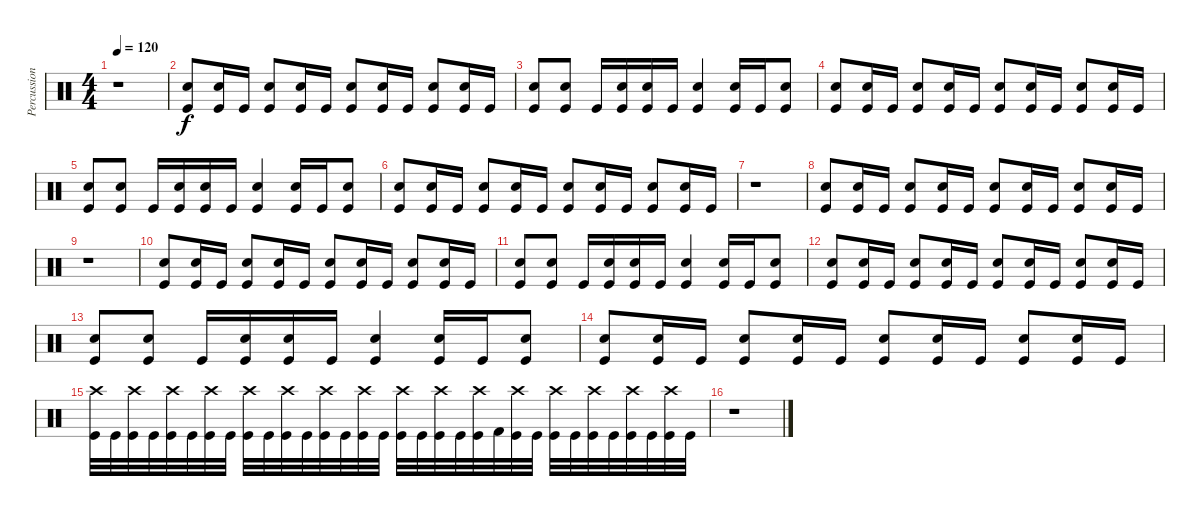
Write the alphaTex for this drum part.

\track ("Percussion" "Percussion") {instrument percussion}
\staff {score}
\articulation defaults
\ts (4 4)
\tempo 120
\clef neutral
\ks c
r.1{dy f} |
("Kick (hit)" "Snare (hit) 2").8 ("Kick (hit)" "Snare (hit) 2").16 "Kick (hit)".16 ("Kick (hit)" "Snare (hit) 2").8 ("Kick (hit)" "Snare (hit) 2").16 "Kick (hit)".16 ("Kick (hit)" "Snare (hit) 2").8 ("Kick (hit)" "Snare (hit) 2").16 "Kick (hit)".16 ("Kick (hit)" "Snare (hit) 2").8 ("Kick (hit)" "Snare (hit) 2").16 "Kick (hit)".16 |
("Kick (hit)" "Snare (hit) 2").8 ("Kick (hit)" "Snare (hit) 2").8 "Kick (hit)".16 ("Kick (hit)" "Snare (hit) 2").16 ("Kick (hit)" "Snare (hit) 2").16 "Kick (hit)".16 ("Kick (hit)" "Snare (hit) 2").4 ("Kick (hit)" "Snare (hit) 2").16 "Kick (hit)".16 ("Kick (hit)" "Snare (hit) 2").8 |
("Kick (hit)" "Snare (hit) 2").8 ("Kick (hit)" "Snare (hit) 2").16 "Kick (hit)".16 ("Kick (hit)" "Snare (hit) 2").8 ("Kick (hit)" "Snare (hit) 2").16 "Kick (hit)".16 ("Kick (hit)" "Snare (hit) 2").8 ("Kick (hit)" "Snare (hit) 2").16 "Kick (hit)".16 ("Kick (hit)" "Snare (hit) 2").8 ("Kick (hit)" "Snare (hit) 2").16 "Kick (hit)".16 |
("Kick (hit)" "Snare (hit) 2").8 ("Kick (hit)" "Snare (hit) 2").8 "Kick (hit)".16 ("Kick (hit)" "Snare (hit) 2").16 ("Kick (hit)" "Snare (hit) 2").16 "Kick (hit)".16 ("Kick (hit)" "Snare (hit) 2").4 ("Kick (hit)" "Snare (hit) 2").16 "Kick (hit)".16 ("Kick (hit)" "Snare (hit) 2").8 |
("Kick (hit)" "Snare (hit) 2").8 ("Kick (hit)" "Snare (hit) 2").16 "Kick (hit)".16 ("Kick (hit)" "Snare (hit) 2").8 ("Kick (hit)" "Snare (hit) 2").16 "Kick (hit)".16 ("Kick (hit)" "Snare (hit) 2").8 ("Kick (hit)" "Snare (hit) 2").16 "Kick (hit)".16 ("Kick (hit)" "Snare (hit) 2").8 ("Kick (hit)" "Snare (hit) 2").16 "Kick (hit)".16 |
r.1 |
("Kick (hit)" "Snare (hit) 2").8 ("Kick (hit)" "Snare (hit) 2").16 "Kick (hit)".16 ("Kick (hit)" "Snare (hit) 2").8 ("Kick (hit)" "Snare (hit) 2").16 "Kick (hit)".16 ("Kick (hit)" "Snare (hit) 2").8 ("Kick (hit)" "Snare (hit) 2").16 "Kick (hit)".16 ("Kick (hit)" "Snare (hit) 2").8 ("Kick (hit)" "Snare (hit) 2").16 "Kick (hit)".16 |
r.1 |
("Kick (hit)" "Snare (hit) 2").8 ("Kick (hit)" "Snare (hit) 2").16 "Kick (hit)".16 ("Kick (hit)" "Snare (hit) 2").8 ("Kick (hit)" "Snare (hit) 2").16 "Kick (hit)".16 ("Kick (hit)" "Snare (hit) 2").8 ("Kick (hit)" "Snare (hit) 2").16 "Kick (hit)".16 ("Kick (hit)" "Snare (hit) 2").8 ("Kick (hit)" "Snare (hit) 2").16 "Kick (hit)".16 |
("Kick (hit)" "Snare (hit) 2").8 ("Kick (hit)" "Snare (hit) 2").8 "Kick (hit)".16 ("Kick (hit)" "Snare (hit) 2").16 ("Kick (hit)" "Snare (hit) 2").16 "Kick (hit)".16 ("Kick (hit)" "Snare (hit) 2").4 ("Kick (hit)" "Snare (hit) 2").16 "Kick (hit)".16 ("Kick (hit)" "Snare (hit) 2").8 |
("Kick (hit)" "Snare (hit) 2").8 ("Kick (hit)" "Snare (hit) 2").16 "Kick (hit)".16 ("Kick (hit)" "Snare (hit) 2").8 ("Kick (hit)" "Snare (hit) 2").16 "Kick (hit)".16 ("Kick (hit)" "Snare (hit) 2").8 ("Kick (hit)" "Snare (hit) 2").16 "Kick (hit)".16 ("Kick (hit)" "Snare (hit) 2").8 ("Kick (hit)" "Snare (hit) 2").16 "Kick (hit)".16 |
("Kick (hit)" "Snare (hit) 2").8 ("Kick (hit)" "Snare (hit) 2").8 "Kick (hit)".16 ("Kick (hit)" "Snare (hit) 2").16 ("Kick (hit)" "Snare (hit) 2").16 "Kick (hit)".16 ("Kick (hit)" "Snare (hit) 2").4 ("Kick (hit)" "Snare (hit) 2").16 "Kick (hit)".16 ("Kick (hit)" "Snare (hit) 2").8 |
("Kick (hit)" "Snare (hit) 2").8 ("Kick (hit)" "Snare (hit) 2").16 "Kick (hit)".16 ("Kick (hit)" "Snare (hit) 2").8 ("Kick (hit)" "Snare (hit) 2").16 "Kick (hit)".16 ("Kick (hit)" "Snare (hit) 2").8 ("Kick (hit)" "Snare (hit) 2").16 "Kick (hit)".16 ("Kick (hit)" "Snare (hit) 2").8 ("Kick (hit)" "Snare (hit) 2").16 "Kick (hit)".16 |
("Kick (hit)" "Crash high (hit)").32 "Kick (hit)".32 ("Kick (hit)" "Crash high (hit)").32 "Kick (hit)".32 ("Kick (hit)" "Crash high (hit)").32 "Kick (hit)".32 ("Kick (hit)" "Crash high (hit)").32 "Kick (hit)".32 ("Kick (hit)" "Crash high (hit)").32 "Kick (hit)".32 ("Kick (hit)" "Crash high (hit)").32 "Kick (hit)".32 ("Kick (hit)" "Crash high (hit)").32 "Kick (hit)".32 ("Kick (hit)" "Crash high (hit)").32 "Kick (hit)".32 ("Kick (hit)" "Crash high (hit)").32 "Kick (hit)".32 ("Kick (hit)" "Crash high (hit)").32 "Kick (hit)".32 ("Kick (hit)" "Crash high (hit)").32 "Kick (hit) 2".32 ("Kick (hit)" "Crash high (hit)").32 "Kick (hit)".32 ("Kick (hit)" "Crash high (hit)").32 "Kick (hit)".32 ("Kick (hit)" "Crash high (hit)").32 "Kick (hit)".32 ("Kick (hit)" "Crash high (hit)").32 "Kick (hit)".32 ("Kick (hit)" "Crash high (hit)").32 "Kick (hit)".32 |
r.1
